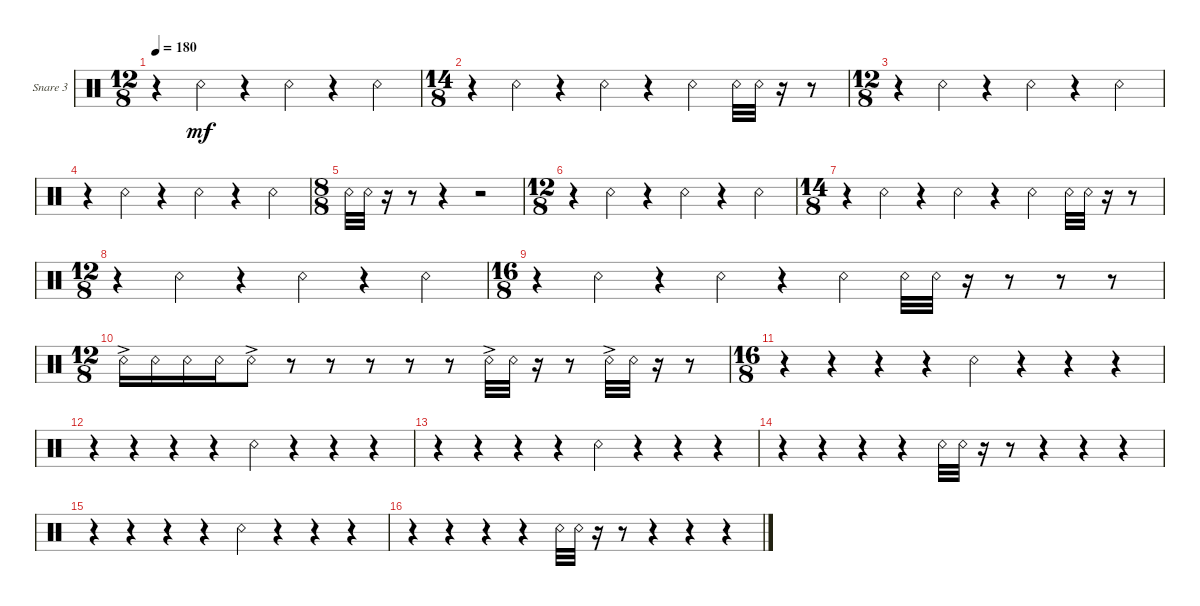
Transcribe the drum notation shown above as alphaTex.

\defaultSystemsLayout 4
\bracketExtendMode groupsimilarinstruments
\firstSystemTrackNameOrientation horizontal
\otherSystemsTrackNameOrientation horizontal
\track ("Snare 3" "Snare 3") {instrument percussion}
\staff {score}
\articulation defaults
\ts (12 8)
\tempo 180
\clef neutral
\ks c
r.4{dy mf} "Snare (rim shot)".4 r.4 "Snare (rim shot)".4 r.4 "Snare (rim shot)".4 |
\ts (14 8)
r.4 "Snare (rim shot)".4 r.4 "Snare (rim shot)".4 r.4 "Snare (rim shot)".4 "Snare (rim shot)".32 "Snare (rim shot)".32 r.16 r.8 |
\ts (12 8)
r.4 "Snare (rim shot)".4 r.4 "Snare (rim shot)".4 r.4 "Snare (rim shot)".4 |
r.4 "Snare (rim shot)".4 r.4 "Snare (rim shot)".4 r.4 "Snare (rim shot)".4 |
\ts (8 8)
"Snare (rim shot)".32 "Snare (rim shot)".32 r.16 r.8 r.4 r.2 |
\ts (12 8)
r.4 "Snare (rim shot)".4 r.4 "Snare (rim shot)".4 r.4 "Snare (rim shot)".4 |
\ts (14 8)
r.4 "Snare (rim shot)".4 r.4 "Snare (rim shot)".4 r.4 "Snare (rim shot)".4 "Snare (rim shot)".32 "Snare (rim shot)".32 r.16 r.8 |
\ts (12 8)
r.4 "Snare (rim shot)".4 r.4 "Snare (rim shot)".4 r.4 "Snare (rim shot)".4 |
\ts (16 8)
r.4 "Snare (rim shot)".4 r.4 "Snare (rim shot)".4 r.4 "Snare (rim shot)".4 "Snare (rim shot)".32 "Snare (rim shot)".32 r.16 r.8 r.8 r.8 |
\ts (12 8)
"Snare (rim shot)"{ac}.16 "Snare (rim shot)".16 "Snare (rim shot)".16 "Snare (rim shot)".16 "Snare (rim shot)"{ac}.8 r.8 r.8 r.8 r.8 r.8 "Snare (rim shot)"{ac}.32 "Snare (rim shot)".32 r.16 r.8 "Snare (rim shot)"{ac}.32 "Snare (rim shot)".32 r.16 r.8 |
\ts (16 8)
r.4 r.4 r.4 r.4 "Snare (rim shot)".4 r.4 r.4 r.4 |
r.4 r.4 r.4 r.4 "Snare (rim shot)".4 r.4 r.4 r.4 |
r.4 r.4 r.4 r.4 "Snare (rim shot)".4 r.4 r.4 r.4 |
r.4 r.4 r.4 r.4 "Snare (rim shot)".32 "Snare (rim shot)".32 r.16 r.8 r.4 r.4 r.4 |
r.4 r.4 r.4 r.4 "Snare (rim shot)".4 r.4 r.4 r.4 |
r.4 r.4 r.4 r.4 "Snare (rim shot)".32 "Snare (rim shot)".32 r.16 r.8 r.4 r.4 r.4
